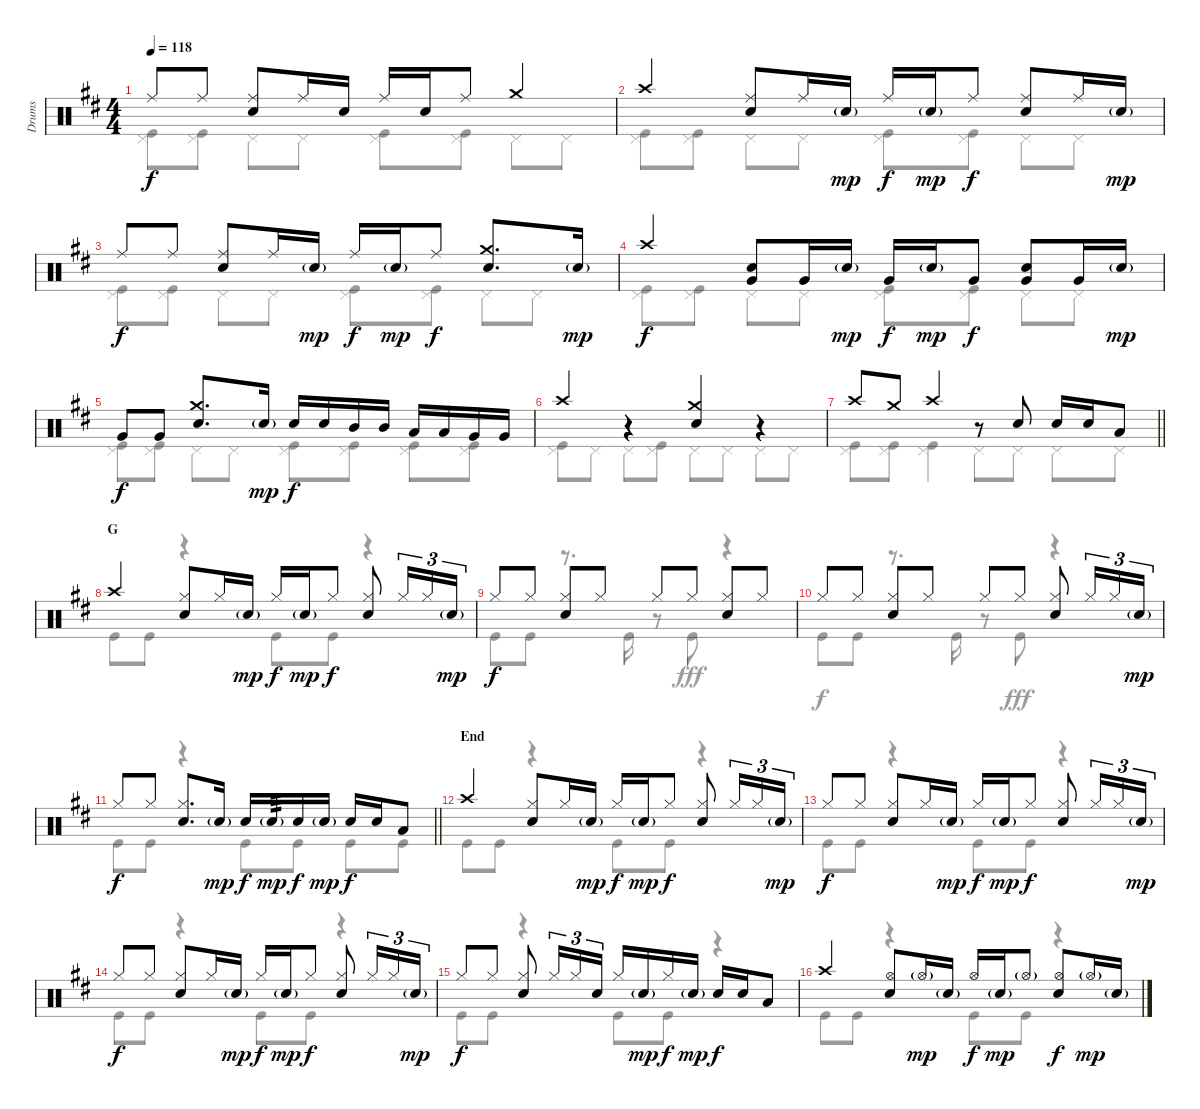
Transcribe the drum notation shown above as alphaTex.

\track ("Drums" "Drums") {instrument percussion}
\staff {score}
\articulation defaults
\voice
\ts (4 4)
\tempo 118
\clef neutral
\ks d "Ride (middle)".8{dy f} "Ride (middle)".8
("Ride (middle)" "Snare (hit) 2").8 "Ride (middle)".16 "Snare (hit) 2".16 "Ride (middle)".16 "Snare (hit) 2".16 "Ride (middle)".8 "Crash medium (hit)".4 |
"Crash high (hit)".4 ("Ride (middle)" "Snare (hit) 2").8 "Ride (middle)".16 "Snare (hit) 2"{g}.16{dy mp} "Ride (middle)".16{dy f} "Snare (hit) 2"{g}.16{dy mp} "Ride (middle)".8{dy f} ("Ride (middle)" "Snare (hit) 2").8 "Ride (middle)".16 "Snare (hit) 2"{g}.16{dy mp} |
"Ride (middle)".8{dy f} "Ride (middle)".8 ("Ride (middle)" "Snare (hit) 2").8 "Ride (middle)".16 "Snare (hit) 2"{g}.16{dy mp} "Ride (middle)".16{dy f} "Snare (hit) 2"{g}.16{dy mp} "Ride (middle)".8{dy f} ("Crash medium (hit)" "Snare (hit) 2").8{d} "Snare (hit) 2"{g}.16{dy mp} |
"Crash high (hit)".4{dy f} ("Very Low Tom (hit)" "Snare (hit) 2").8 "Very Low Tom (hit)".16 "Snare (hit) 2"{g}.16{dy mp} "Very Low Tom (hit)".16{dy f} "Snare (hit) 2"{g}.16{dy mp} "Very Low Tom (hit)".8{dy f} ("Very Low Tom (hit)" "Snare (hit) 2").8 "Very Low Tom (hit)".16 "Snare (hit) 2"{g}.16{dy mp} |
"Very Low Tom (hit)".8{dy f} "Very Low Tom (hit)".8 ("Crash medium (hit)" "Snare (hit) 2").8{d} "Snare (hit) 2"{g}.16{dy mp} "Snare (hit) 2".16{dy f} "Snare (hit) 2".16 "Mid Tom (hit)".16 "Mid Tom (hit)".16 "Low Tom (hit)".16 "Low Tom (hit)".16 "Very Low Tom (hit)".16 "Very Low Tom (hit)".16 |
"Crash high (hit)".4 r.4 ("Crash medium (hit)" "Snare (hit) 2").4 r.4 |
\barLineRight lightlight "Crash high (hit)".8 "Crash medium (hit)".8 "Crash high (hit)".4
r.8 "Snare (hit) 2".8 "Snare (hit) 2".16 "Snare (hit) 2".16 "Low Tom (hit)".8 |
\section ("" "G")
"Crash high (hit)".4 ("Hi-Hat (closed)" "Snare (hit) 2").8 "Hi-Hat (closed)".16 "Snare (hit) 2"{g}.16{dy mp} "Hi-Hat (closed)".16{dy f} "Snare (hit) 2"{g}.16{dy mp} "Hi-Hat (closed)".8{dy f} ("Hi-Hat (closed)" "Snare (hit) 2").8 "Hi-Hat (closed)".16{tu (3 2)} "Hi-Hat (closed)".16{tu (3 2)} "Snare (hit) 2"{g}.16{tu (3 2) dy mp} |
"Hi-Hat (closed)".8{dy f} "Hi-Hat (closed)".8 ("Hi-Hat (closed)" "Snare (hit) 2").8 "Hi-Hat (closed)".8 "Hi-Hat (closed)".8 "Hi-Hat (closed)".8 ("Hi-Hat (closed)" "Snare (hit) 2").8 "Hi-Hat (closed)".8 |
"Hi-Hat (closed)".8 "Hi-Hat (closed)".8 ("Hi-Hat (closed)" "Snare (hit) 2").8 "Hi-Hat (closed)".8 "Hi-Hat (closed)".8 "Hi-Hat (closed)".8 ("Hi-Hat (closed)" "Snare (hit) 2").8 "Hi-Hat (closed)".16{tu (3 2)} "Hi-Hat (closed)".16{tu (3 2)} "Snare (hit) 2"{g}.16{tu (3 2) dy mp} |
\barLineRight lightlight "Hi-Hat (closed)".8{dy f} "Hi-Hat (closed)".8
("Hi-Hat (closed)" "Snare (hit) 2").8{d} "Snare (hit) 2"{g}.16{dy mp} "Snare (hit) 2".16{dy f} "Snare (hit) 2"{g}.16{tp 3 dy mp} "Snare (hit) 2".16{dy f} "Snare (hit) 2"{g}.16{dy mp} "Snare (hit) 2".16{dy f} "Snare (hit) 2".16 "Low Tom (hit)".8 |
\section ("" "End")
"Crash high (hit)".4 ("Hi-Hat (closed)" "Snare (hit) 2").8 "Hi-Hat (closed)".16 "Snare (hit) 2"{g}.16{dy mp} "Hi-Hat (closed)".16{dy f} "Snare (hit) 2"{g}.16{dy mp} "Hi-Hat (closed)".8{dy f} ("Hi-Hat (closed)" "Snare (hit) 2").8 "Hi-Hat (closed)".16{tu (3 2)} "Hi-Hat (closed)".16{tu (3 2)} "Snare (hit) 2"{g}.16{tu (3 2) dy mp} |
"Hi-Hat (closed)".8{dy f} "Hi-Hat (closed)".8 ("Hi-Hat (closed)" "Snare (hit) 2").8 "Hi-Hat (closed)".16 "Snare (hit) 2"{g}.16{dy mp} "Hi-Hat (closed)".16{dy f} "Snare (hit) 2"{g}.16{dy mp} "Hi-Hat (closed)".8{dy f} ("Hi-Hat (closed)" "Snare (hit) 2").8 "Hi-Hat (closed)".16{tu (3 2)} "Hi-Hat (closed)".16{tu (3 2)} "Snare (hit) 2"{g}.16{tu (3 2) dy mp} |
"Hi-Hat (closed)".8{dy f} "Hi-Hat (closed)".8 ("Hi-Hat (closed)" "Snare (hit) 2").8 "Hi-Hat (closed)".16 "Snare (hit) 2"{g}.16{dy mp} "Hi-Hat (closed)".16{dy f} "Snare (hit) 2"{g}.16{dy mp} "Hi-Hat (closed)".8{dy f} ("Hi-Hat (closed)" "Snare (hit) 2").8 "Hi-Hat (closed)".16{tu (3 2)} "Hi-Hat (closed)".16{tu (3 2)} "Snare (hit) 2"{g}.16{tu (3 2) dy mp} |
"Hi-Hat (closed)".8{dy f} "Hi-Hat (closed)".8 ("Hi-Hat (closed)" "Snare (hit) 2").8 "Hi-Hat (closed)".16{tu (3 2)} "Hi-Hat (closed)".16{tu (3 2)} "Snare (hit) 2".16{tu (3 2)} "Hi-Hat (closed)".16 "Snare (hit) 2"{g}.16{dy mp} "Hi-Hat (closed)".16{dy f} "Snare (hit) 2"{g}.16{dy mp} "Snare (hit) 2".16{dy f} "Snare (hit) 2".16 "Low Tom (hit)".8 |
"Crash high (hit)".4 ("Hi-Hat (open)" "Snare (hit) 2").8 "Hi-Hat (open)"{g}.16{dy mp} "Snare (hit) 2"{g}.16 "Hi-Hat (open)".16{dy f} "Snare (hit) 2"{g}.16{dy mp} "Hi-Hat (open)"{g}.8 ("Hi-Hat (open)" "Snare (hit) 2").8{dy f} "Hi-Hat (open)"{g}.16{dy mp} "Snare (hit) 2"{g}.16
\voice
\clef neutral
\ottava regular
\simile none
\ks d
("Pedal Hi-Hat (hit)" "Kick (hit)").8{dy f} ("Pedal Hi-Hat (hit)" "Kick (hit)").8 "Pedal Hi-Hat (hit)".8 "Pedal Hi-Hat (hit)".8 ("Pedal Hi-Hat (hit)" "Kick (hit)").8 ("Pedal Hi-Hat (hit)" "Kick (hit)").8 "Pedal Hi-Hat (hit)".8 "Pedal Hi-Hat (hit)".8 |
("Pedal Hi-Hat (hit)" "Kick (hit)").8 ("Pedal Hi-Hat (hit)" "Kick (hit)").8 "Pedal Hi-Hat (hit)".8 "Pedal Hi-Hat (hit)".8 ("Pedal Hi-Hat (hit)" "Kick (hit)").8 ("Pedal Hi-Hat (hit)" "Kick (hit)").8 "Pedal Hi-Hat (hit)".8 "Pedal Hi-Hat (hit)".8 |
("Pedal Hi-Hat (hit)" "Kick (hit)").8 ("Pedal Hi-Hat (hit)" "Kick (hit)").8 "Pedal Hi-Hat (hit)".8 "Pedal Hi-Hat (hit)".8 ("Pedal Hi-Hat (hit)" "Kick (hit)").8 ("Pedal Hi-Hat (hit)" "Kick (hit)").8 "Pedal Hi-Hat (hit)".8 "Pedal Hi-Hat (hit)".8 |
("Pedal Hi-Hat (hit)" "Kick (hit)").8 ("Pedal Hi-Hat (hit)" "Kick (hit)").8 "Pedal Hi-Hat (hit)".8 "Pedal Hi-Hat (hit)".8 ("Pedal Hi-Hat (hit)" "Kick (hit)").8 ("Pedal Hi-Hat (hit)" "Kick (hit)").8 "Pedal Hi-Hat (hit)".8 "Pedal Hi-Hat (hit)".8 |
("Pedal Hi-Hat (hit)" "Kick (hit)").8 ("Pedal Hi-Hat (hit)" "Kick (hit)").8 "Pedal Hi-Hat (hit)".8 "Pedal Hi-Hat (hit)".8 ("Pedal Hi-Hat (hit)" "Kick (hit)").8 ("Pedal Hi-Hat (hit)" "Kick (hit)").8 ("Pedal Hi-Hat (hit)" "Kick (hit)").8 ("Pedal Hi-Hat (hit)" "Kick (hit)").8 |
("Pedal Hi-Hat (hit)" "Kick (hit)").8 "Pedal Hi-Hat (hit)".8 "Pedal Hi-Hat (hit)".8 ("Pedal Hi-Hat (hit)" "Kick (hit)").8 "Pedal Hi-Hat (hit)".8 "Pedal Hi-Hat (hit)".8 "Pedal Hi-Hat (hit)".8 "Pedal Hi-Hat (hit)".8 |
\barLineRight lightlight
("Pedal Hi-Hat (hit)" "Kick (hit)").8 ("Pedal Hi-Hat (hit)" "Kick (hit)").8 ("Pedal Hi-Hat (hit)" "Kick (hit)").4 "Pedal Hi-Hat (hit)".8 "Pedal Hi-Hat (hit)".8 "Pedal Hi-Hat (hit)".8 "Pedal Hi-Hat (hit)".8 |
"Kick (hit)".8 "Kick (hit)".8 r.4 "Kick (hit)".8 "Kick (hit)".8 r.4 |
"Kick (hit)".8 "Kick (hit)".8 r.8{d} "Kick (hit)".16 r.8 "Kick (hit)".8{dy fff} r.4 |
"Kick (hit)".8{dy f} "Kick (hit)".8 r.8{d} "Kick (hit)".16 r.8 "Kick (hit)".8{dy fff} r.4 |
\barLineRight lightlight "Kick (hit)".8{dy f} "Kick (hit)".8
r.4 "Kick (hit)".8 "Kick (hit)".8 "Kick (hit)".8 "Kick (hit)".8 |
"Kick (hit)".8 "Kick (hit)".8 r.4 "Kick (hit)".8 "Kick (hit)".8 r.4 |
"Kick (hit)".8 "Kick (hit)".8 r.4 "Kick (hit)".8 "Kick (hit)".8 r.4 |
"Kick (hit)".8 "Kick (hit)".8 r.4 "Kick (hit)".8 "Kick (hit)".8 r.4 |
"Kick (hit)".8 "Kick (hit)".8 r.4 "Kick (hit)".8 "Kick (hit)".8 r.4 |
"Kick (hit)".8 "Kick (hit)".8 r.4 "Kick (hit)".8 "Kick (hit)".8 r.4
